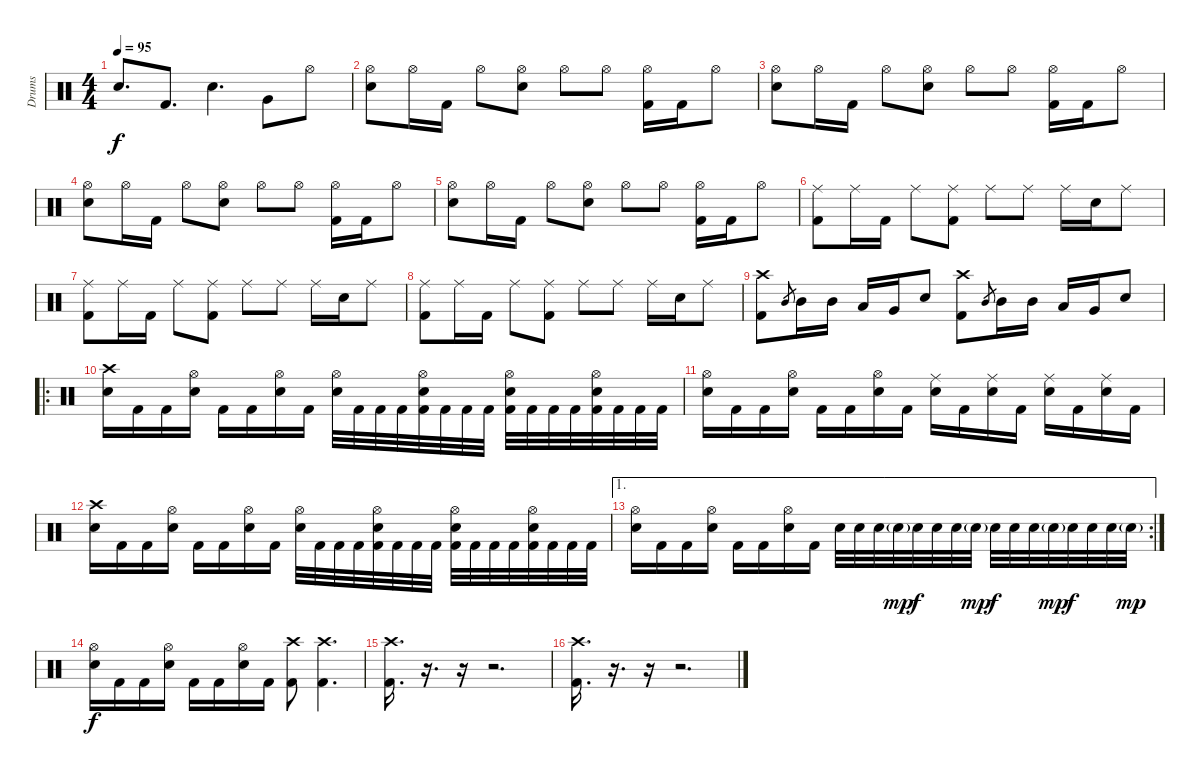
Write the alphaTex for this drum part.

\track ("Drums" "Drums") {instrument percussion}
\staff {score}
\articulation defaults
\ts (4 4)
\tempo 95
\clef neutral
\ks c "Electric Snare (hit)".8{d dy f} "Kick (hit) 2".8{d} "Electric Snare (hit)".4{d} "Very Low Tom (hit)".8 "Hi-Hat (open)".8
|
("Hi-Hat (open)" "Electric Snare (hit)").8 "Hi-Hat (open)".16 "Kick (hit) 2".16 "Hi-Hat (open)".8 ("Hi-Hat (open)" "Electric Snare (hit)").8 "Hi-Hat (open)".8 "Hi-Hat (open)".8 ("Hi-Hat (open)" "Kick (hit) 2").16 "Kick (hit) 2".16 "Hi-Hat (open)".8 |
("Hi-Hat (open)" "Electric Snare (hit)").8 "Hi-Hat (open)".16 "Kick (hit) 2".16 "Hi-Hat (open)".8 ("Hi-Hat (open)" "Electric Snare (hit)").8 "Hi-Hat (open)".8 "Hi-Hat (open)".8 ("Hi-Hat (open)" "Kick (hit) 2").16 "Kick (hit) 2".16 "Hi-Hat (open)".8 |
("Hi-Hat (open)" "Electric Snare (hit)").8 "Hi-Hat (open)".16 "Kick (hit) 2".16 "Hi-Hat (open)".8 ("Hi-Hat (open)" "Electric Snare (hit)").8 "Hi-Hat (open)".8 "Hi-Hat (open)".8 ("Hi-Hat (open)" "Kick (hit) 2").16 "Kick (hit) 2".16 "Hi-Hat (open)".8 |
("Hi-Hat (open)" "Electric Snare (hit)").8 "Hi-Hat (open)".16 "Kick (hit) 2".16 "Hi-Hat (open)".8 ("Hi-Hat (open)" "Electric Snare (hit)").8 "Hi-Hat (open)".8 "Hi-Hat (open)".8 ("Hi-Hat (open)" "Kick (hit) 2").16 "Kick (hit) 2".16 "Hi-Hat (open)".8 |
("Ride (middle)" "Kick (hit) 2").8 "Ride (middle)".16 "Kick (hit) 2".16 "Ride (middle)".8 ("Ride (middle)" "Kick (hit) 2").8 "Ride (middle)".8 "Ride (middle)".8 "Ride (middle)".16 "Electric Snare (hit)".16 "Ride (middle)".8 |
("Ride (middle)" "Kick (hit) 2").8 "Ride (middle)".16 "Kick (hit) 2".16 "Ride (middle)".8 ("Ride (middle)" "Kick (hit) 2").8 "Ride (middle)".8 "Ride (middle)".8 "Ride (middle)".16 "Electric Snare (hit)".16 "Ride (middle)".8 |
("Ride (middle)" "Kick (hit) 2").8 "Ride (middle)".16 "Kick (hit) 2".16 "Ride (middle)".8 ("Ride (middle)" "Kick (hit) 2").8 "Ride (middle)".8 "Ride (middle)".8 "Ride (middle)".16 "Electric Snare (hit)".16 "Ride (middle)".8 |
("Crash high (hit)" "Kick (hit) 2").8 "Mid Tom (hit)".8{gr} "Mid Tom (hit)".16 "Mid Tom (hit)".16 "Low Tom (hit)".16 "Very Low Tom (hit)".16 "Electric Snare (hit)".8 ("Crash high (hit)" "Kick (hit) 2").8 "Mid Tom (hit)".8{gr} "Mid Tom (hit)".16 "Mid Tom (hit)".16 "Low Tom (hit)".16 "Very Low Tom (hit)".16 "Electric Snare (hit)".8 |
\ro
("Crash high (hit)" "Electric Snare (hit)").16 "Kick (hit) 2".16 "Kick (hit) 2".16 ("Hi-Hat (open)" "Electric Snare (hit)").16 "Kick (hit) 2".16 "Kick (hit) 2".16 ("Hi-Hat (open)" "Electric Snare (hit)").16 "Kick (hit) 2".16 ("Hi-Hat (open)" "Electric Snare (hit)").32 "Kick (hit) 2".32 "Kick (hit) 2".32 "Kick (hit) 2".32 ("Hi-Hat (open)" "Electric Snare (hit)" "Kick (hit) 2").32 "Kick (hit) 2".32 "Kick (hit) 2".32 "Kick (hit) 2".32 ("Hi-Hat (open)" "Electric Snare (hit)" "Kick (hit) 2").32 "Kick (hit) 2".32 "Kick (hit) 2".32 "Kick (hit) 2".32 ("Hi-Hat (open)" "Electric Snare (hit)" "Kick (hit) 2").32 "Kick (hit) 2".32 "Kick (hit) 2".32 "Kick (hit) 2".32 |
("Hi-Hat (open)" "Electric Snare (hit)").16 "Kick (hit) 2".16 "Kick (hit) 2".16 ("Hi-Hat (open)" "Electric Snare (hit)").16 "Kick (hit) 2".16 "Kick (hit) 2".16 ("Hi-Hat (open)" "Electric Snare (hit)").16 "Kick (hit) 2".16 ("Ride (middle)" "Electric Snare (hit)").16 "Kick (hit) 2".16 ("Ride (middle)" "Electric Snare (hit)").16 "Kick (hit) 2".16 ("Ride (middle)" "Electric Snare (hit)").16 "Kick (hit) 2".16 ("Ride (middle)" "Electric Snare (hit)").16 "Kick (hit) 2".16 |
("Crash high (hit)" "Electric Snare (hit)").16 "Kick (hit) 2".16 "Kick (hit) 2".16 ("Hi-Hat (open)" "Electric Snare (hit)").16 "Kick (hit) 2".16 "Kick (hit) 2".16 ("Hi-Hat (open)" "Electric Snare (hit)").16 "Kick (hit) 2".16 ("Hi-Hat (open)" "Electric Snare (hit)").32 "Kick (hit) 2".32 "Kick (hit) 2".32 "Kick (hit) 2".32 ("Hi-Hat (open)" "Electric Snare (hit)" "Kick (hit) 2").32 "Kick (hit) 2".32 "Kick (hit) 2".32 "Kick (hit) 2".32 ("Hi-Hat (open)" "Electric Snare (hit)" "Kick (hit) 2").32 "Kick (hit) 2".32 "Kick (hit) 2".32 "Kick (hit) 2".32 ("Hi-Hat (open)" "Electric Snare (hit)" "Kick (hit) 2").32 "Kick (hit) 2".32 "Kick (hit) 2".32 "Kick (hit) 2".32 |
\ae 1
\rc 2
("Hi-Hat (open)" "Electric Snare (hit)").16 "Kick (hit) 2".16 "Kick (hit) 2".16 ("Hi-Hat (open)" "Electric Snare (hit)").16 "Kick (hit) 2".16 "Kick (hit) 2".16 ("Hi-Hat (open)" "Electric Snare (hit)").16 "Kick (hit) 2".16 "Electric Snare (hit)".32 "Electric Snare (hit)".32 "Electric Snare (hit)".32 "Electric Snare (hit)"{g}.32{dy mp} "Electric Snare (hit)".32{dy f} "Electric Snare (hit)".32 "Electric Snare (hit)".32 "Electric Snare (hit)"{g}.32{dy mp} "Electric Snare (hit)".32{dy f} "Electric Snare (hit)".32 "Electric Snare (hit)".32 "Electric Snare (hit)"{g}.32{dy mp} "Electric Snare (hit)".32{dy f} "Electric Snare (hit)".32 "Electric Snare (hit)".32 "Electric Snare (hit)"{g}.32{dy mp} |
("Hi-Hat (open)" "Electric Snare (hit)").16{dy f} "Kick (hit) 2".16 "Kick (hit) 2".16 ("Hi-Hat (open)" "Electric Snare (hit)").16 "Kick (hit) 2".16 "Kick (hit) 2".16 ("Hi-Hat (open)" "Electric Snare (hit)").16 "Kick (hit) 2".16 ("Crash high (hit)" "Kick (hit) 2").8 ("Crash high (hit)" "Kick (hit) 2").4{d} |
("Crash high (hit)" "Kick (hit) 2").16{d} r.16{d volume 0} r.16 r.2{d} |
("Crash high (hit)" "Kick (hit) 2").16{d volume 13} r.16{d volume 0} r.16 r.2{d}
